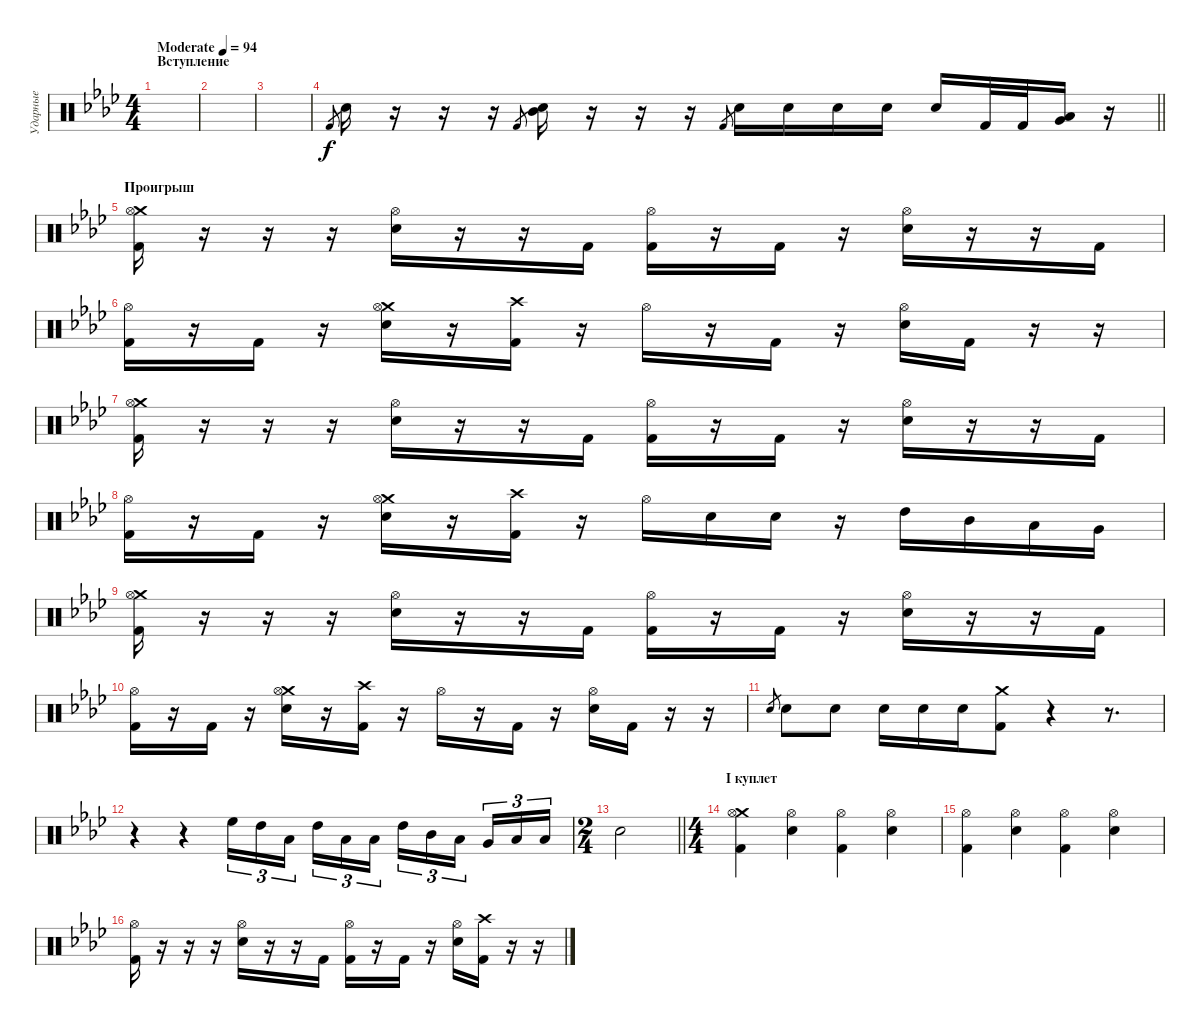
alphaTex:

\track ("Ударные" "Ударные") {instrument percussion}
\staff {score}
\articulation defaults
\ts (4 4)
\section ("" "Вступление")
\tempo (94 "Moderate")
\clef neutral
\ks fminor
|
|
|
\barLineRight lightlight "Kick (hit) 2".8{gr} "Electric Snare (hit)".16
r.16 r.16 r.16 "Kick (hit) 2".8{gr} ("Mid Tom (hit)" "Electric Snare (hit)").16 r.16 r.16 r.16 "Kick (hit) 2".8{gr} "Electric Snare (hit)".16 "Electric Snare (hit)".16 "Electric Snare (hit)".16 "Electric Snare (hit)".16 "Electric Snare (hit)".16 "Kick (hit) 2".32 "Kick (hit) 2".32 ("Low Floor Tom (hit)" "Very Low Tom (hit)").16 r.16 |
\section ("" "Проигрыш")
("Crash medium (hit)" "Kick (hit) 2" "Hi-Hat (open)").16 r.16 r.16 r.16 ("Electric Snare (hit)" "Hi-Hat (open)").16 r.16 r.16 "Kick (hit) 2".16 ("Kick (hit) 2" "Hi-Hat (open)").16 r.16 "Kick (hit) 2".16 r.16 ("Electric Snare (hit)" "Hi-Hat (open)").16 r.16 r.16 "Kick (hit) 2".16 |
("Kick (hit) 2" "Hi-Hat (open)").16 r.16 "Kick (hit) 2".16 r.16 ("Crash medium (hit)" "Electric Snare (hit)" "Hi-Hat (open)").16 r.16 ("Crash high (hit)" "Kick (hit) 2").16 r.16 "Hi-Hat (open)".16 r.16 "Kick (hit) 2".16 r.16 ("Electric Snare (hit)" "Hi-Hat (open)").16 "Kick (hit) 2".16 r.16 r.16 |
("Crash medium (hit)" "Kick (hit) 2" "Hi-Hat (open)").16 r.16 r.16 r.16 ("Electric Snare (hit)" "Hi-Hat (open)").16 r.16 r.16 "Kick (hit) 2".16 ("Kick (hit) 2" "Hi-Hat (open)").16 r.16 "Kick (hit) 2".16 r.16 ("Electric Snare (hit)" "Hi-Hat (open)").16 r.16 r.16 "Kick (hit) 2".16 |
("Kick (hit) 2" "Hi-Hat (open)").16 r.16 "Kick (hit) 2".16 r.16 ("Crash medium (hit)" "Electric Snare (hit)" "Hi-Hat (open)").16 r.16 ("Crash high (hit)" "Kick (hit) 2").16 r.16 "Hi-Hat (open)".16 "Electric Snare (hit)".16 "Electric Snare (hit)".16 r.16 "High Tom (hit)".16 "Mid Tom (hit)".16 "Low Tom (hit)".16 "Very Low Tom (hit)".16 |
("Crash medium (hit)" "Kick (hit) 2" "Hi-Hat (open)").16 r.16 r.16 r.16 ("Electric Snare (hit)" "Hi-Hat (open)").16 r.16 r.16 "Kick (hit) 2".16 ("Kick (hit) 2" "Hi-Hat (open)").16 r.16 "Kick (hit) 2".16 r.16 ("Electric Snare (hit)" "Hi-Hat (open)").16 r.16 r.16 "Kick (hit) 2".16 |
("Kick (hit) 2" "Hi-Hat (open)").16 r.16 "Kick (hit) 2".16 r.16 ("Crash medium (hit)" "Electric Snare (hit)" "Hi-Hat (open)").16 r.16 ("Crash high (hit)" "Kick (hit) 2").16 r.16 "Hi-Hat (open)".16 r.16 "Kick (hit) 2".16 r.16 ("Electric Snare (hit)" "Hi-Hat (open)").16 "Kick (hit) 2".16 r.16 r.16 |
"Electric Snare (hit)".8{gr} "Electric Snare (hit)".8 "Electric Snare (hit)".8 "Electric Snare (hit)".16 "Electric Snare (hit)".16 "Electric Snare (hit)".16 ("Crash medium (hit)" "Kick (hit) 2").8 r.4 r.8{d} |
r.4 r.4 "High Floor Tom (hit)".16{tu (3 2)} "High Tom (hit)".16{tu (3 2)} "Low Floor Tom (hit)".16{tu (3 2) beam splitsecondary} "High Tom (hit)".16{tu (3 2)} "Low Floor Tom (hit)".16{tu (3 2)} "Low Tom (hit)".16{tu (3 2)} "High Tom (hit)".16{tu (3 2)} "Mid Tom (hit)".16{tu (3 2)} "Low Tom (hit)".16{tu (3 2) beam splitsecondary} "Very Low Tom (hit)".16{tu (3 2)} "Low Floor Tom (hit)".16{tu (3 2)} "Low Tom (hit)".16{tu (3 2)} |
\ts (2 4)
\barLineRight lightlight "Electric Snare (hit)".2
|
\ts (4 4)
\section ("" "I куплет")
("Crash medium (hit)" "Kick (hit) 2" "Hi-Hat (open)").4 ("Electric Snare (hit)" "Hi-Hat (open)").4 ("Kick (hit) 2" "Hi-Hat (open)").4 ("Electric Snare (hit)" "Hi-Hat (open)").4 |
("Kick (hit) 2" "Hi-Hat (open)").4 ("Electric Snare (hit)" "Hi-Hat (open)").4 ("Kick (hit) 2" "Hi-Hat (open)").4 ("Electric Snare (hit)" "Hi-Hat (open)").4 |
("Kick (hit) 2" "Hi-Hat (open)").16 r.16 r.16 r.16 ("Electric Snare (hit)" "Hi-Hat (open)").16 r.16 r.16 "Kick (hit) 2".16 ("Kick (hit) 2" "Hi-Hat (open)").16 r.16 "Kick (hit) 2".16 r.16 ("Electric Snare (hit)" "Hi-Hat (open)").16 ("Crash high (hit)" "Kick (hit) 2").16 r.16 r.16
